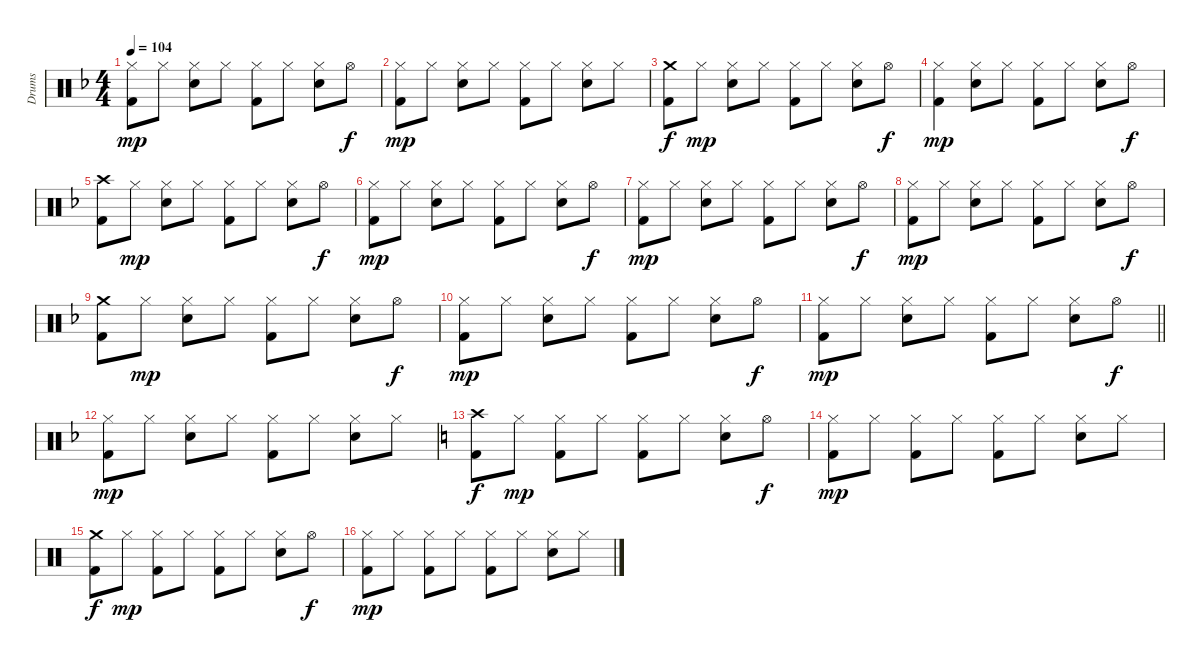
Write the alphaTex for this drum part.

\track ("Drums" "Drums") {instrument percussion}
\staff {score}
\articulation defaults
\ts (4 4)
\tempo 104
\clef neutral
\ks dminor
("Hi-Hat (closed)" "Kick (hit) 2").8{dy mp} "Hi-Hat (closed)".8 ("Hi-Hat (closed)" "Snare (hit) 2").8 "Hi-Hat (closed)".8 ("Hi-Hat (closed)" "Kick (hit) 2").8 "Hi-Hat (closed)".8 ("Hi-Hat (closed)" "Snare (hit) 2").8 "Hi-Hat (open)".8{dy f} |
("Hi-Hat (closed)" "Kick (hit) 2").8{dy mp} "Hi-Hat (closed)".8 ("Hi-Hat (closed)" "Snare (hit) 2").8 "Hi-Hat (closed)".8 ("Hi-Hat (closed)" "Kick (hit) 2").8 "Hi-Hat (closed)".8 ("Hi-Hat (closed)" "Snare (hit) 2").8 "Hi-Hat (closed)".8 |
("Crash medium (hit)" "Kick (hit) 2").8{dy f} "Hi-Hat (closed)".8{dy mp} ("Hi-Hat (closed)" "Snare (hit) 2").8 "Hi-Hat (closed)".8 ("Hi-Hat (closed)" "Kick (hit) 2").8 "Hi-Hat (closed)".8 ("Hi-Hat (closed)" "Snare (hit) 2").8 "Hi-Hat (open)".8{dy f} |
("Hi-Hat (closed)" "Kick (hit) 2").4{dy mp} ("Hi-Hat (closed)" "Snare (hit) 2").8 "Hi-Hat (closed)".8 ("Hi-Hat (closed)" "Kick (hit) 2").8 "Hi-Hat (closed)".8 ("Hi-Hat (closed)" "Snare (hit) 2").8 "Hi-Hat (open)".8{dy f} |
("Crash high (hit)" "Kick (hit) 2").8 "Hi-Hat (closed)".8{dy mp} ("Hi-Hat (closed)" "Snare (hit) 2").8 "Hi-Hat (closed)".8 ("Hi-Hat (closed)" "Kick (hit) 2").8 "Hi-Hat (closed)".8 ("Hi-Hat (closed)" "Snare (hit) 2").8 "Hi-Hat (open)".8{dy f} |
("Hi-Hat (closed)" "Kick (hit) 2").8{dy mp} "Hi-Hat (closed)".8 ("Hi-Hat (closed)" "Snare (hit) 2").8 "Hi-Hat (closed)".8 ("Hi-Hat (closed)" "Kick (hit) 2").8 "Hi-Hat (closed)".8 ("Hi-Hat (closed)" "Snare (hit) 2").8 "Hi-Hat (open)".8{dy f} |
("Hi-Hat (closed)" "Kick (hit) 2").8{dy mp} "Hi-Hat (closed)".8 ("Hi-Hat (closed)" "Snare (hit) 2").8 "Hi-Hat (closed)".8 ("Hi-Hat (closed)" "Kick (hit) 2").8 "Hi-Hat (closed)".8 ("Hi-Hat (closed)" "Snare (hit) 2").8 "Hi-Hat (open)".8{dy f} |
("Hi-Hat (closed)" "Kick (hit) 2").8{dy mp} "Hi-Hat (closed)".8 ("Hi-Hat (closed)" "Snare (hit) 2").8 "Hi-Hat (closed)".8 ("Hi-Hat (closed)" "Kick (hit) 2").8 "Hi-Hat (closed)".8 ("Hi-Hat (closed)" "Snare (hit) 2").8 "Hi-Hat (open)".8{dy f} |
("Crash medium (hit)" "Kick (hit) 2").8 "Hi-Hat (closed)".8{dy mp} ("Hi-Hat (closed)" "Snare (hit) 2").8 "Hi-Hat (closed)".8 ("Hi-Hat (closed)" "Kick (hit) 2").8 "Hi-Hat (closed)".8 ("Hi-Hat (closed)" "Snare (hit) 2").8 "Hi-Hat (open)".8{dy f} |
("Hi-Hat (closed)" "Kick (hit) 2").8{dy mp} "Hi-Hat (closed)".8 ("Hi-Hat (closed)" "Snare (hit) 2").8 "Hi-Hat (closed)".8 ("Hi-Hat (closed)" "Kick (hit) 2").8 "Hi-Hat (closed)".8 ("Hi-Hat (closed)" "Snare (hit) 2").8 "Hi-Hat (open)".8{dy f} |
\barLineRight lightlight
("Hi-Hat (closed)" "Kick (hit) 2").8{dy mp} "Hi-Hat (closed)".8 ("Hi-Hat (closed)" "Snare (hit) 2").8 "Hi-Hat (closed)".8 ("Hi-Hat (closed)" "Kick (hit) 2").8 "Hi-Hat (closed)".8 ("Hi-Hat (closed)" "Snare (hit) 2").8 "Hi-Hat (open)".8{dy f} |
("Hi-Hat (closed)" "Kick (hit) 2").8{dy mp} "Hi-Hat (closed)".8 ("Hi-Hat (closed)" "Snare (hit) 2").8 "Hi-Hat (closed)".8 ("Hi-Hat (closed)" "Kick (hit) 2").8 "Hi-Hat (closed)".8 ("Hi-Hat (closed)" "Snare (hit) 2").8 "Hi-Hat (closed)".8 |
\ks c
("Crash high (hit)" "Kick (hit) 2").8{dy f} "Hi-Hat (closed)".8{dy mp} ("Hi-Hat (closed)" "Kick (hit) 2").8 "Hi-Hat (closed)".8 ("Hi-Hat (closed)" "Kick (hit) 2").8 "Hi-Hat (closed)".8 ("Hi-Hat (closed)" "Snare (hit) 2").8 "Hi-Hat (open)".8{dy f} |
("Hi-Hat (closed)" "Kick (hit) 2").8{dy mp} "Hi-Hat (closed)".8 ("Hi-Hat (closed)" "Kick (hit) 2").8 "Hi-Hat (closed)".8 ("Hi-Hat (closed)" "Kick (hit) 2").8 "Hi-Hat (closed)".8 ("Hi-Hat (closed)" "Snare (hit) 2").8 "Hi-Hat (closed)".8 |
("Crash medium (hit)" "Kick (hit) 2").8{dy f} "Hi-Hat (closed)".8{dy mp} ("Hi-Hat (closed)" "Kick (hit) 2").8 "Hi-Hat (closed)".8 ("Hi-Hat (closed)" "Kick (hit) 2").8 "Hi-Hat (closed)".8 ("Hi-Hat (closed)" "Snare (hit) 2").8 "Hi-Hat (open)".8{dy f} |
("Hi-Hat (closed)" "Kick (hit) 2").8{dy mp} "Hi-Hat (closed)".8 ("Hi-Hat (closed)" "Kick (hit) 2").8 "Hi-Hat (closed)".8 ("Hi-Hat (closed)" "Kick (hit) 2").8 "Hi-Hat (closed)".8 ("Hi-Hat (closed)" "Snare (hit) 2").8 "Hi-Hat (closed)".8
